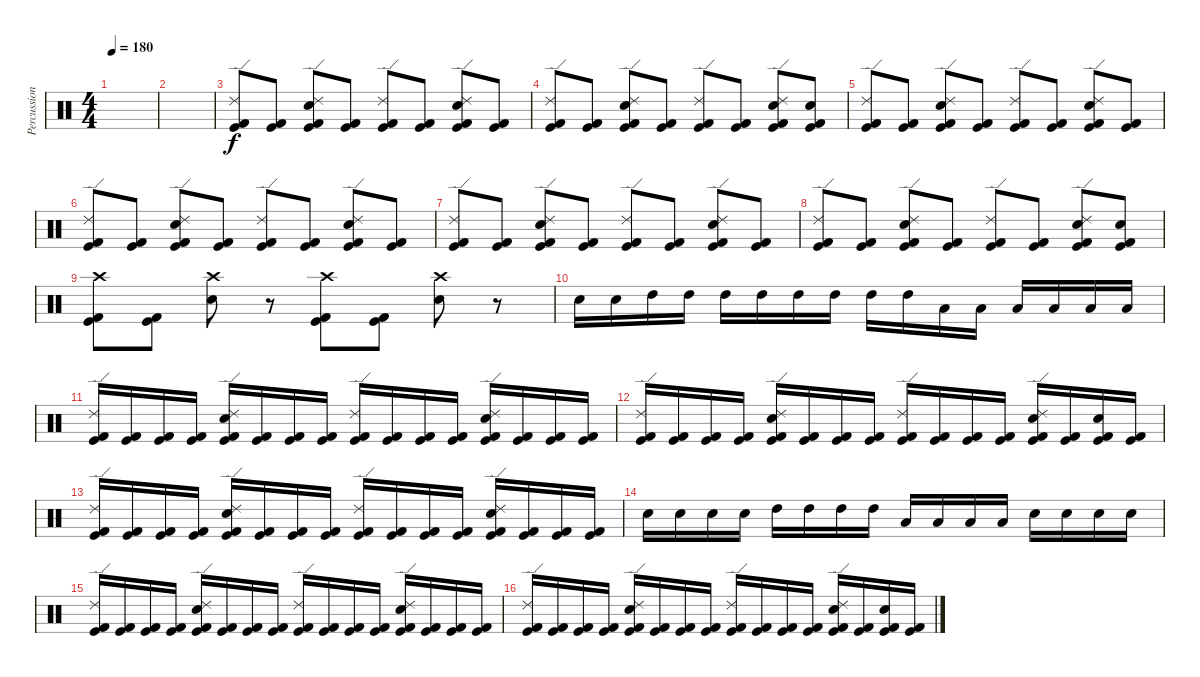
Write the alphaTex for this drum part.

\track ("Percussion" "Percussion") {instrument percussion}
\staff {score}
\articulation defaults
\ts (4 4)
\tempo 180
\clef neutral
\ks c
|
|
("Ride (edge) 2" "Kick (hit)" "Kick (hit) 2").8 ("Kick (hit)" "Kick (hit) 2").8 ("Ride (edge) 2" "Snare (hit) 2" "Kick (hit)" "Kick (hit) 2").8 ("Kick (hit)" "Kick (hit) 2").8 ("Ride (edge) 2" "Kick (hit)" "Kick (hit) 2").8 ("Kick (hit)" "Kick (hit) 2").8 ("Ride (edge) 2" "Snare (hit) 2" "Kick (hit)" "Kick (hit) 2").8 ("Kick (hit)" "Kick (hit) 2").8 |
("Ride (edge) 2" "Kick (hit)" "Kick (hit) 2").8 ("Kick (hit)" "Kick (hit) 2").8 ("Ride (edge) 2" "Snare (hit) 2" "Kick (hit)" "Kick (hit) 2").8 ("Kick (hit)" "Kick (hit) 2").8 ("Ride (edge) 2" "Kick (hit)" "Kick (hit) 2").8 ("Kick (hit)" "Kick (hit) 2").8 ("Ride (edge) 2" "Snare (hit) 2" "Kick (hit)" "Kick (hit) 2").8 ("Snare (hit) 2" "Kick (hit)" "Kick (hit) 2").8 |
("Ride (edge) 2" "Kick (hit)" "Kick (hit) 2").8 ("Kick (hit)" "Kick (hit) 2").8 ("Ride (edge) 2" "Snare (hit) 2" "Kick (hit)" "Kick (hit) 2").8 ("Kick (hit)" "Kick (hit) 2").8 ("Ride (edge) 2" "Kick (hit)" "Kick (hit) 2").8 ("Kick (hit)" "Kick (hit) 2").8 ("Ride (edge) 2" "Snare (hit) 2" "Kick (hit)" "Kick (hit) 2").8 ("Kick (hit)" "Kick (hit) 2").8 |
("Ride (edge) 2" "Kick (hit)" "Kick (hit) 2").8 ("Kick (hit)" "Kick (hit) 2").8 ("Ride (edge) 2" "Snare (hit) 2" "Kick (hit)" "Kick (hit) 2").8 ("Kick (hit)" "Kick (hit) 2").8 ("Ride (edge) 2" "Kick (hit)" "Kick (hit) 2").8 ("Kick (hit)" "Kick (hit) 2").8 ("Ride (edge) 2" "Snare (hit) 2" "Kick (hit)" "Kick (hit) 2").8 ("Kick (hit)" "Kick (hit) 2").8 |
("Ride (edge) 2" "Kick (hit)" "Kick (hit) 2").8 ("Kick (hit)" "Kick (hit) 2").8 ("Ride (edge) 2" "Snare (hit) 2" "Kick (hit)" "Kick (hit) 2").8 ("Kick (hit)" "Kick (hit) 2").8 ("Ride (edge) 2" "Kick (hit)" "Kick (hit) 2").8 ("Kick (hit)" "Kick (hit) 2").8 ("Ride (edge) 2" "Snare (hit) 2" "Kick (hit)" "Kick (hit) 2").8 ("Kick (hit)" "Kick (hit) 2").8 |
("Ride (edge) 2" "Kick (hit)" "Kick (hit) 2").8 ("Kick (hit)" "Kick (hit) 2").8 ("Ride (edge) 2" "Snare (hit) 2" "Kick (hit)" "Kick (hit) 2").8 ("Kick (hit)" "Kick (hit) 2").8 ("Ride (edge) 2" "Kick (hit)" "Kick (hit) 2").8 ("Kick (hit)" "Kick (hit) 2").8 ("Ride (edge) 2" "Snare (hit) 2" "Kick (hit)" "Kick (hit) 2").8 ("Snare (hit) 2" "Kick (hit)" "Kick (hit) 2").8 |
("Crash high (hit)" "Kick (hit)" "Kick (hit) 2").8 ("Kick (hit)" "Kick (hit) 2").8 ("Crash high (hit)" "Snare (hit) 2").8 r.8 ("Crash high (hit)" "Kick (hit)" "Kick (hit) 2").8 ("Kick (hit)" "Kick (hit) 2").8 ("Crash high (hit)" "Snare (hit) 2").8 r.8 |
"Snare (hit) 2".16 "Snare (hit) 2".16 "High Tom (hit)".16 "High Tom (hit)".16 "High Tom (hit)".16 "High Tom (hit)".16 "High Tom (hit)".16 "High Tom (hit)".16 "High Tom (hit)".16 "High Tom (hit)".16 "Low Tom (hit)".16 "Low Tom (hit)".16 "Low Tom (hit)".16 "Low Tom (hit)".16 "Low Tom (hit)".16 "Low Tom (hit)".16 |
("Ride (edge) 2" "Kick (hit)" "Kick (hit) 2").16 ("Kick (hit)" "Kick (hit) 2").16 ("Kick (hit)" "Kick (hit) 2").16 ("Kick (hit)" "Kick (hit) 2").16 ("Ride (edge) 2" "Snare (hit) 2" "Kick (hit)" "Kick (hit) 2").16 ("Kick (hit)" "Kick (hit) 2").16 ("Kick (hit)" "Kick (hit) 2").16 ("Kick (hit)" "Kick (hit) 2").16 ("Ride (edge) 2" "Kick (hit)" "Kick (hit) 2").16 ("Kick (hit)" "Kick (hit) 2").16 ("Kick (hit)" "Kick (hit) 2").16 ("Kick (hit)" "Kick (hit) 2").16 ("Ride (edge) 2" "Snare (hit) 2" "Kick (hit)" "Kick (hit) 2").16 ("Kick (hit)" "Kick (hit) 2").16 ("Kick (hit)" "Kick (hit) 2").16 ("Kick (hit)" "Kick (hit) 2").16 |
("Ride (edge) 2" "Kick (hit)" "Kick (hit) 2").16 ("Kick (hit)" "Kick (hit) 2").16 ("Kick (hit)" "Kick (hit) 2").16 ("Kick (hit)" "Kick (hit) 2").16 ("Ride (edge) 2" "Snare (hit) 2" "Kick (hit)" "Kick (hit) 2").16 ("Kick (hit)" "Kick (hit) 2").16 ("Kick (hit)" "Kick (hit) 2").16 ("Kick (hit)" "Kick (hit) 2").16 ("Ride (edge) 2" "Kick (hit)" "Kick (hit) 2").16 ("Kick (hit)" "Kick (hit) 2").16 ("Kick (hit)" "Kick (hit) 2").16 ("Kick (hit)" "Kick (hit) 2").16 ("Ride (edge) 2" "Snare (hit) 2" "Kick (hit)" "Kick (hit) 2").16 ("Kick (hit)" "Kick (hit) 2").16 ("Snare (hit) 2" "Kick (hit)" "Kick (hit) 2").16 ("Kick (hit)" "Kick (hit) 2").16 |
("Ride (edge) 2" "Kick (hit)" "Kick (hit) 2").16 ("Kick (hit)" "Kick (hit) 2").16 ("Kick (hit)" "Kick (hit) 2").16 ("Kick (hit)" "Kick (hit) 2").16 ("Ride (edge) 2" "Snare (hit) 2" "Kick (hit)" "Kick (hit) 2").16 ("Kick (hit)" "Kick (hit) 2").16 ("Kick (hit)" "Kick (hit) 2").16 ("Kick (hit)" "Kick (hit) 2").16 ("Ride (edge) 2" "Kick (hit)" "Kick (hit) 2").16 ("Kick (hit)" "Kick (hit) 2").16 ("Kick (hit)" "Kick (hit) 2").16 ("Kick (hit)" "Kick (hit) 2").16 ("Ride (edge) 2" "Snare (hit) 2" "Kick (hit)" "Kick (hit) 2").16 ("Kick (hit)" "Kick (hit) 2").16 ("Kick (hit)" "Kick (hit) 2").16 ("Kick (hit)" "Kick (hit) 2").16 |
"Snare (hit) 2".16 "Snare (hit) 2".16 "Snare (hit) 2".16 "Snare (hit) 2".16 "High Tom (hit)".16 "High Tom (hit)".16 "High Tom (hit)".16 "High Tom (hit)".16 "Low Tom (hit)".16 "Low Tom (hit)".16 "Low Tom (hit)".16 "Low Tom (hit)".16 "Snare (hit) 2".16 "Snare (hit) 2".16 "Snare (hit) 2".16 "Snare (hit) 2".16 |
("Ride (edge) 2" "Kick (hit)" "Kick (hit) 2").16 ("Kick (hit)" "Kick (hit) 2").16 ("Kick (hit)" "Kick (hit) 2").16 ("Kick (hit)" "Kick (hit) 2").16 ("Ride (edge) 2" "Snare (hit) 2" "Kick (hit)" "Kick (hit) 2").16 ("Kick (hit)" "Kick (hit) 2").16 ("Kick (hit)" "Kick (hit) 2").16 ("Kick (hit)" "Kick (hit) 2").16 ("Ride (edge) 2" "Kick (hit)" "Kick (hit) 2").16 ("Kick (hit)" "Kick (hit) 2").16 ("Kick (hit)" "Kick (hit) 2").16 ("Kick (hit)" "Kick (hit) 2").16 ("Ride (edge) 2" "Snare (hit) 2" "Kick (hit)" "Kick (hit) 2").16 ("Kick (hit)" "Kick (hit) 2").16 ("Kick (hit)" "Kick (hit) 2").16 ("Kick (hit)" "Kick (hit) 2").16 |
("Ride (edge) 2" "Kick (hit)" "Kick (hit) 2").16 ("Kick (hit)" "Kick (hit) 2").16 ("Kick (hit)" "Kick (hit) 2").16 ("Kick (hit)" "Kick (hit) 2").16 ("Ride (edge) 2" "Snare (hit) 2" "Kick (hit)" "Kick (hit) 2").16 ("Kick (hit)" "Kick (hit) 2").16 ("Kick (hit)" "Kick (hit) 2").16 ("Kick (hit)" "Kick (hit) 2").16 ("Ride (edge) 2" "Kick (hit)" "Kick (hit) 2").16 ("Kick (hit)" "Kick (hit) 2").16 ("Kick (hit)" "Kick (hit) 2").16 ("Kick (hit)" "Kick (hit) 2").16 ("Ride (edge) 2" "Snare (hit) 2" "Kick (hit)" "Kick (hit) 2").16 ("Kick (hit)" "Kick (hit) 2").16 ("Snare (hit) 2" "Kick (hit)" "Kick (hit) 2").16 ("Kick (hit)" "Kick (hit) 2").16
